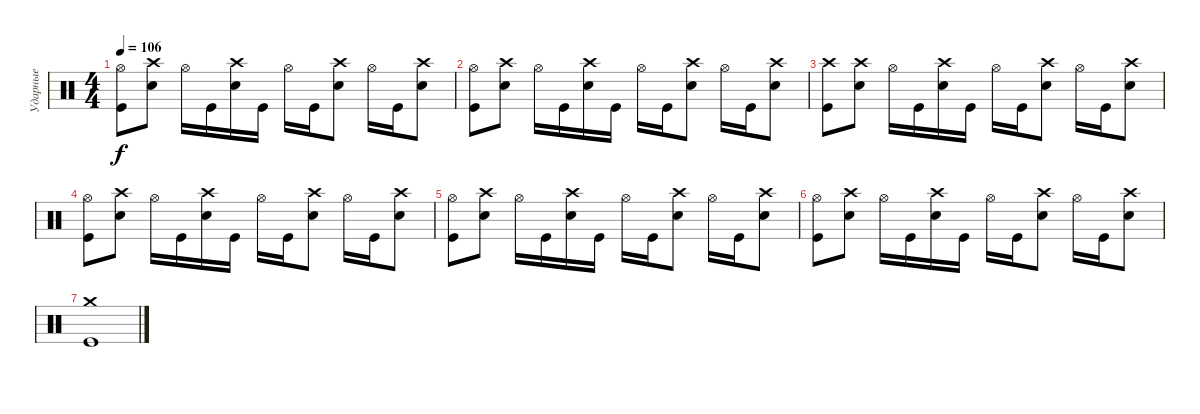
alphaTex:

\track ("Ударные" "Ударные") {instrument percussion}
\staff {score}
\articulation defaults
\ts (4 4)
\tempo 106
\clef neutral
\ks c
("Kick (hit)" "Hi-Hat (open)").8{dy f} ("Snare (hit) 2" "Crash high (hit)").8 "Hi-Hat (open)".16 "Kick (hit)".16 ("Snare (hit) 2" "Crash high (hit)").16 "Kick (hit)".16 "Hi-Hat (open)".16 "Kick (hit)".16 ("Snare (hit) 2" "Crash high (hit)").8 "Hi-Hat (open)".16 "Kick (hit)".16 ("Snare (hit) 2" "Crash high (hit)").8 |
("Kick (hit)" "Hi-Hat (open)").8 ("Snare (hit) 2" "Crash high (hit)").8 "Hi-Hat (open)".16 "Kick (hit)".16 ("Snare (hit) 2" "Crash high (hit)").16 "Kick (hit)".16 "Hi-Hat (open)".16 "Kick (hit)".16 ("Snare (hit) 2" "Crash high (hit)").8 "Hi-Hat (open)".16 "Kick (hit)".16 ("Snare (hit) 2" "Crash high (hit)").8 |
("Kick (hit)" "Crash high (hit)").8 ("Snare (hit) 2" "Crash high (hit)").8 "Hi-Hat (open)".16 "Kick (hit)".16 ("Snare (hit) 2" "Crash high (hit)").16 "Kick (hit)".16 "Hi-Hat (open)".16 "Kick (hit)".16 ("Snare (hit) 2" "Crash high (hit)").8 "Hi-Hat (open)".16 "Kick (hit)".16 ("Snare (hit) 2" "Crash high (hit)").8 |
("Kick (hit)" "Hi-Hat (open)").8 ("Snare (hit) 2" "Crash high (hit)").8 "Hi-Hat (open)".16 "Kick (hit)".16 ("Snare (hit) 2" "Crash high (hit)").16 "Kick (hit)".16 "Hi-Hat (open)".16 "Kick (hit)".16 ("Snare (hit) 2" "Crash high (hit)").8 "Hi-Hat (open)".16 "Kick (hit)".16 ("Snare (hit) 2" "Crash high (hit)").8 |
("Kick (hit)" "Hi-Hat (open)").8 ("Snare (hit) 2" "Crash high (hit)").8 "Hi-Hat (open)".16 "Kick (hit)".16 ("Snare (hit) 2" "Crash high (hit)").16 "Kick (hit)".16 "Hi-Hat (open)".16 "Kick (hit)".16 ("Snare (hit) 2" "Crash high (hit)").8 "Hi-Hat (open)".16 "Kick (hit)".16 ("Snare (hit) 2" "Crash high (hit)").8 |
("Kick (hit)" "Hi-Hat (open)").8 ("Snare (hit) 2" "Crash high (hit)").8 "Hi-Hat (open)".16 "Kick (hit)".16 ("Snare (hit) 2" "Crash high (hit)").16 "Kick (hit)".16 "Hi-Hat (open)".16 "Kick (hit)".16 ("Snare (hit) 2" "Crash high (hit)").8 "Hi-Hat (open)".16 "Kick (hit)".16 ("Snare (hit) 2" "Crash high (hit)").8 |
("Kick (hit)" "Crash medium (hit)").1
